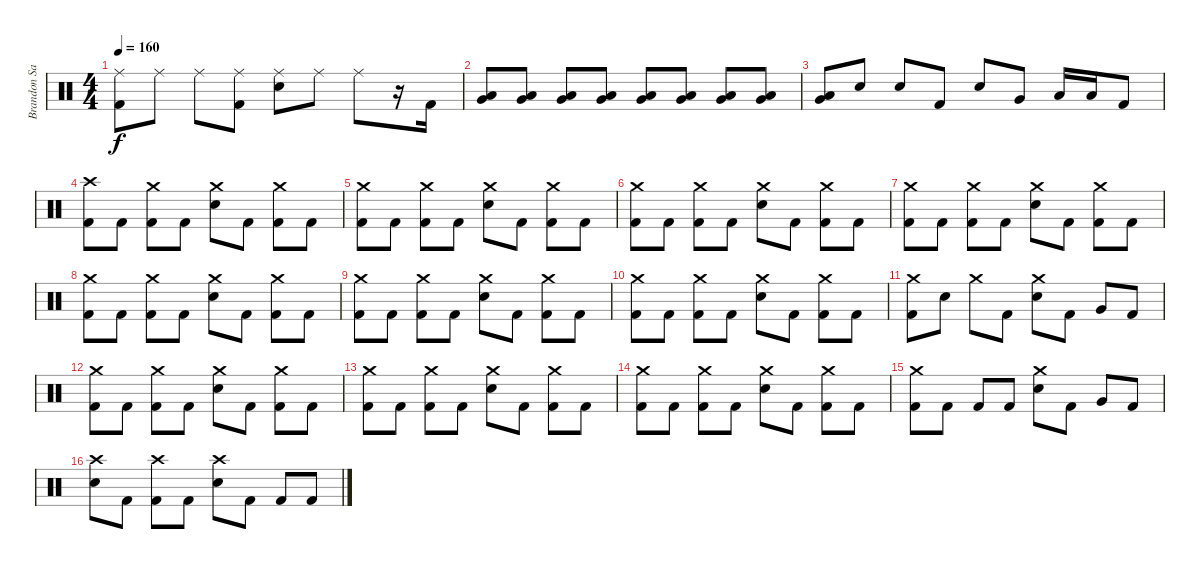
\track ("Brandon Saller" "Brandon Sa") {instrument percussion}
\staff {score}
\articulation defaults
\ts (4 4)
\tempo 160
\clef neutral
\ks c
("Ride (middle)" "Kick (hit) 2").8{dy f} "Ride (middle)".8 "Ride (middle)".8 ("Ride (middle)" "Kick (hit) 2").8 ("Ride (middle)" "Snare (hit) 2").8 "Ride (middle)".8 "Ride (middle)".8 r.16 "Kick (hit) 2".16 |
("Very Low Tom (hit)" "Low Floor Tom (hit)").8 ("Very Low Tom (hit)" "Low Floor Tom (hit)").8 ("Very Low Tom (hit)" "Low Floor Tom (hit)").8 ("Very Low Tom (hit)" "Low Floor Tom (hit)").8 ("Very Low Tom (hit)" "Low Floor Tom (hit)").8 ("Very Low Tom (hit)" "Low Floor Tom (hit)").8 ("Very Low Tom (hit)" "Low Floor Tom (hit)").8 ("Very Low Tom (hit)" "Low Floor Tom (hit)").8 |
("Very Low Tom (hit)" "Low Floor Tom (hit)").8 "Snare (hit) 2".8 "Snare (hit) 2".8 "Kick (hit) 2".8 "Snare (hit) 2".8 "Very Low Tom (hit)".8 "Low Floor Tom (hit)".16 "Low Floor Tom (hit)".16 "Kick (hit) 2".8 |
("Crash high (hit)" "Kick (hit) 2").8 "Kick (hit) 2".8 ("Crash medium (hit)" "Kick (hit) 2").8 "Kick (hit) 2".8 ("Crash medium (hit)" "Snare (hit) 2").8 "Kick (hit) 2".8 ("Crash medium (hit)" "Kick (hit) 2").8 "Kick (hit) 2".8 |
("Crash medium (hit)" "Kick (hit) 2").8 "Kick (hit) 2".8 ("Crash medium (hit)" "Kick (hit) 2").8 "Kick (hit) 2".8 ("Crash medium (hit)" "Snare (hit) 2").8 "Kick (hit) 2".8 ("Crash medium (hit)" "Kick (hit) 2").8 "Kick (hit) 2".8 |
("Crash medium (hit)" "Kick (hit) 2").8 "Kick (hit) 2".8 ("Crash medium (hit)" "Kick (hit) 2").8 "Kick (hit) 2".8 ("Crash medium (hit)" "Snare (hit) 2").8 "Kick (hit) 2".8 ("Crash medium (hit)" "Kick (hit) 2").8 "Kick (hit) 2".8 |
("Crash medium (hit)" "Kick (hit) 2").8 "Kick (hit) 2".8 ("Crash medium (hit)" "Kick (hit) 2").8 "Kick (hit) 2".8 ("Crash medium (hit)" "Snare (hit) 2").8 "Kick (hit) 2".8 ("Crash medium (hit)" "Kick (hit) 2").8 "Kick (hit) 2".8 |
("Crash medium (hit)" "Kick (hit) 2").8 "Kick (hit) 2".8 ("Crash medium (hit)" "Kick (hit) 2").8 "Kick (hit) 2".8 ("Crash medium (hit)" "Snare (hit) 2").8 "Kick (hit) 2".8 ("Crash medium (hit)" "Kick (hit) 2").8 "Kick (hit) 2".8 |
("Crash medium (hit)" "Kick (hit) 2").8 "Kick (hit) 2".8 ("Crash medium (hit)" "Kick (hit) 2").8 "Kick (hit) 2".8 ("Crash medium (hit)" "Snare (hit) 2").8 "Kick (hit) 2".8 ("Crash medium (hit)" "Kick (hit) 2").8 "Kick (hit) 2".8 |
("Crash medium (hit)" "Kick (hit) 2").8 "Kick (hit) 2".8 ("Crash medium (hit)" "Kick (hit) 2").8 "Kick (hit) 2".8 ("Crash medium (hit)" "Snare (hit) 2").8 "Kick (hit) 2".8 ("Crash medium (hit)" "Kick (hit) 2").8 "Kick (hit) 2".8 |
("Crash medium (hit)" "Kick (hit) 2").8 "Snare (hit) 2".8 "Crash medium (hit)".8 "Kick (hit) 2".8 ("Crash medium (hit)" "Snare (hit) 2").8 "Kick (hit) 2".8 "Very Low Tom (hit)".8 "Kick (hit) 2".8 |
("Crash medium (hit)" "Kick (hit) 2").8 "Kick (hit) 2".8 ("Crash medium (hit)" "Kick (hit) 2").8 "Kick (hit) 2".8 ("Crash medium (hit)" "Snare (hit) 2").8 "Kick (hit) 2".8 ("Crash medium (hit)" "Kick (hit) 2").8 "Kick (hit) 2".8 |
("Crash medium (hit)" "Kick (hit) 2").8 "Kick (hit) 2".8 ("Crash medium (hit)" "Kick (hit) 2").8 "Kick (hit) 2".8 ("Crash medium (hit)" "Snare (hit) 2").8 "Kick (hit) 2".8 ("Crash medium (hit)" "Kick (hit) 2").8 "Kick (hit) 2".8 |
("Crash medium (hit)" "Kick (hit) 2").8 "Kick (hit) 2".8 ("Crash medium (hit)" "Kick (hit) 2").8 "Kick (hit) 2".8 ("Crash medium (hit)" "Snare (hit) 2").8 "Kick (hit) 2".8 ("Crash medium (hit)" "Kick (hit) 2").8 "Kick (hit) 2".8 |
("Crash medium (hit)" "Kick (hit) 2").8 "Kick (hit) 2".8 "Kick (hit) 2".8 "Kick (hit) 2".8 ("Crash medium (hit)" "Snare (hit) 2").8 "Kick (hit) 2".8 "Very Low Tom (hit)".8 "Kick (hit) 2".8 |
("Crash high (hit)" "Snare (hit) 2").8 "Kick (hit) 2".8 ("Crash high (hit)" "Kick (hit) 2").8 "Kick (hit) 2".8 ("Crash high (hit)" "Snare (hit) 2").8 "Kick (hit) 2".8 "Kick (hit) 2".8 "Kick (hit) 2".8
